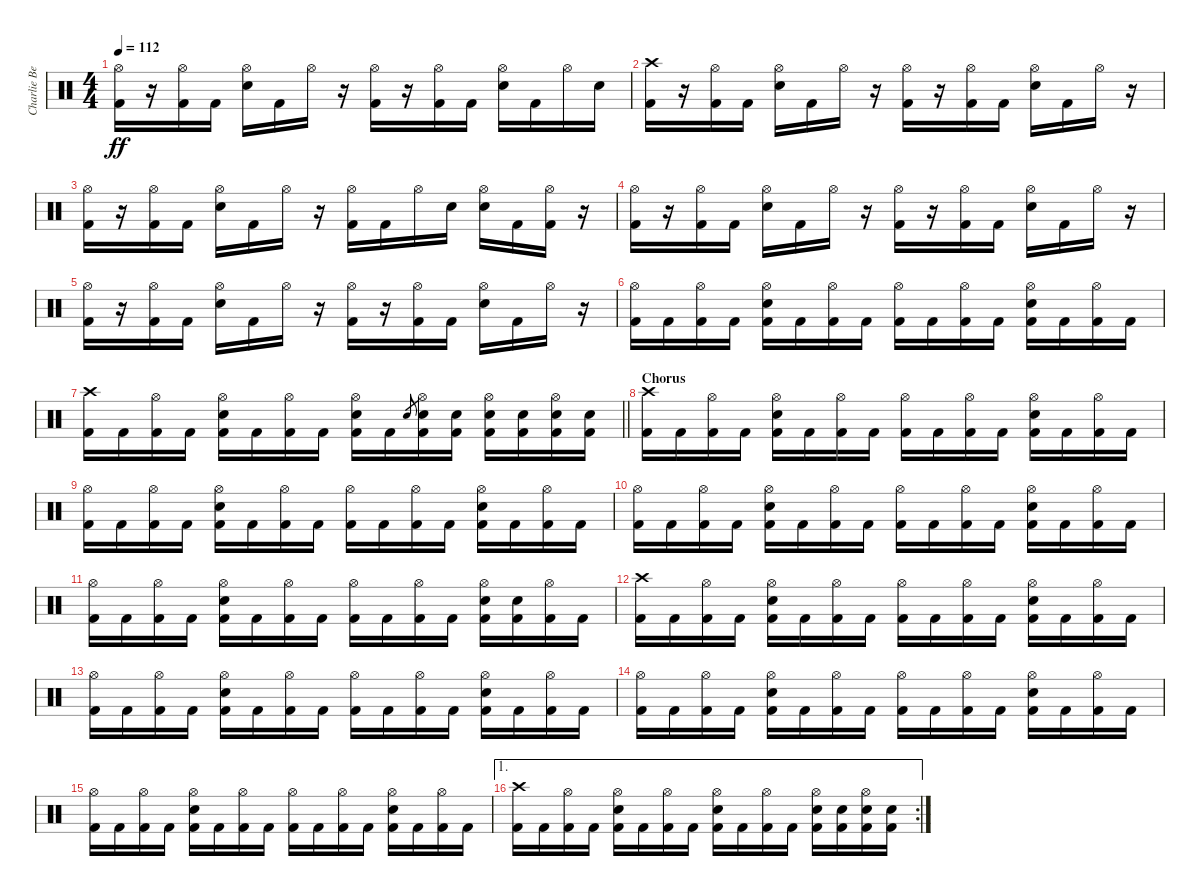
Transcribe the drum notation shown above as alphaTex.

\track ("Charlie Benante" "Charlie Be") {instrument percussion}
\staff {score}
\articulation defaults
\ts (4 4)
\tempo 112
\clef neutral
\ks c
("Hi-Hat (open)" "Kick (hit) 2").16{dy ff} r.16 ("Hi-Hat (open)" "Kick (hit) 2").16 "Kick (hit) 2".16 ("Hi-Hat (open)" "Snare (hit) 2").16 "Kick (hit) 2".16 "Hi-Hat (open)".16 r.16 ("Hi-Hat (open)" "Kick (hit) 2").16 r.16 ("Hi-Hat (open)" "Kick (hit) 2").16 "Kick (hit) 2".16 ("Hi-Hat (open)" "Snare (hit) 2").16 "Kick (hit) 2".16 "Hi-Hat (open)".16 "Snare (hit) 2".16 |
("Crash high (hit)" "Kick (hit) 2").16 r.16 ("Hi-Hat (open)" "Kick (hit) 2").16 "Kick (hit) 2".16 ("Hi-Hat (open)" "Snare (hit) 2").16 "Kick (hit) 2".16 "Hi-Hat (open)".16 r.16 ("Hi-Hat (open)" "Kick (hit) 2").16 r.16 ("Hi-Hat (open)" "Kick (hit) 2").16 "Kick (hit) 2".16 ("Hi-Hat (open)" "Snare (hit) 2").16 "Kick (hit) 2".16 "Hi-Hat (open)".16 r.16 |
("Hi-Hat (open)" "Kick (hit) 2").16 r.16 ("Hi-Hat (open)" "Kick (hit) 2").16 "Kick (hit) 2".16 ("Hi-Hat (open)" "Snare (hit) 2").16 "Kick (hit) 2".16 "Hi-Hat (open)".16 r.16 ("Hi-Hat (open)" "Kick (hit) 2").16 "Kick (hit) 2".16 "Hi-Hat (open)".16 "Snare (hit) 2".16 ("Hi-Hat (open)" "Snare (hit) 2").16 "Kick (hit) 2".16 ("Hi-Hat (open)" "Kick (hit) 2").16 r.16 |
("Hi-Hat (open)" "Kick (hit) 2").16 r.16 ("Hi-Hat (open)" "Kick (hit) 2").16 "Kick (hit) 2".16 ("Hi-Hat (open)" "Snare (hit) 2").16 "Kick (hit) 2".16 "Hi-Hat (open)".16 r.16 ("Hi-Hat (open)" "Kick (hit) 2").16 r.16 ("Hi-Hat (open)" "Kick (hit) 2").16 "Kick (hit) 2".16 ("Hi-Hat (open)" "Snare (hit) 2").16 "Kick (hit) 2".16 "Hi-Hat (open)".16 r.16 |
("Hi-Hat (open)" "Kick (hit) 2").16 r.16 ("Hi-Hat (open)" "Kick (hit) 2").16 "Kick (hit) 2".16 ("Hi-Hat (open)" "Snare (hit) 2").16 "Kick (hit) 2".16 "Hi-Hat (open)".16 r.16 ("Hi-Hat (open)" "Kick (hit) 2").16 r.16 ("Hi-Hat (open)" "Kick (hit) 2").16 "Kick (hit) 2".16 ("Hi-Hat (open)" "Snare (hit) 2").16 "Kick (hit) 2".16 "Hi-Hat (open)".16 r.16 |
("Hi-Hat (open)" "Kick (hit) 2").16 "Kick (hit) 2".16 ("Hi-Hat (open)" "Kick (hit) 2").16 "Kick (hit) 2".16 ("Hi-Hat (open)" "Snare (hit) 2" "Kick (hit) 2").16 "Kick (hit) 2".16 ("Hi-Hat (open)" "Kick (hit) 2").16 "Kick (hit) 2".16 ("Hi-Hat (open)" "Kick (hit) 2").16 "Kick (hit) 2".16 ("Hi-Hat (open)" "Kick (hit) 2").16 "Kick (hit) 2".16 ("Hi-Hat (open)" "Snare (hit) 2" "Kick (hit) 2").16 "Kick (hit) 2".16 ("Hi-Hat (open)" "Kick (hit) 2").16 "Kick (hit) 2".16 |
\barLineRight lightlight
("Crash high (hit)" "Kick (hit) 2").16 "Kick (hit) 2".16 ("Hi-Hat (open)" "Kick (hit) 2").16 "Kick (hit) 2".16 ("Hi-Hat (open)" "Snare (hit) 2" "Kick (hit) 2").16 "Kick (hit) 2".16 ("Hi-Hat (open)" "Kick (hit) 2").16 "Kick (hit) 2".16 ("Hi-Hat (open)" "Snare (hit) 2" "Kick (hit) 2").16 "Kick (hit) 2".16 "Snare (hit) 2".8{gr} ("Hi-Hat (open)" "Snare (hit) 2" "Kick (hit) 2").16 ("Snare (hit) 2" "Kick (hit) 2").16 ("Hi-Hat (open)" "Snare (hit) 2" "Kick (hit) 2").16 ("Snare (hit) 2" "Kick (hit) 2").16 ("Hi-Hat (open)" "Snare (hit) 2" "Kick (hit) 2").16 ("Snare (hit) 2" "Kick (hit) 2").16 |
\section ("" "Chorus")
("Crash high (hit)" "Kick (hit) 2").16 "Kick (hit) 2".16 ("Hi-Hat (open)" "Kick (hit) 2").16 "Kick (hit) 2".16 ("Hi-Hat (open)" "Snare (hit) 2" "Kick (hit) 2").16 "Kick (hit) 2".16 ("Hi-Hat (open)" "Kick (hit) 2").16 "Kick (hit) 2".16 ("Hi-Hat (open)" "Kick (hit) 2").16 "Kick (hit) 2".16 ("Hi-Hat (open)" "Kick (hit) 2").16 "Kick (hit) 2".16 ("Hi-Hat (open)" "Snare (hit) 2" "Kick (hit) 2").16 "Kick (hit) 2".16 ("Hi-Hat (open)" "Kick (hit) 2").16 "Kick (hit) 2".16 |
("Hi-Hat (open)" "Kick (hit) 2").16 "Kick (hit) 2".16 ("Hi-Hat (open)" "Kick (hit) 2").16 "Kick (hit) 2".16 ("Hi-Hat (open)" "Snare (hit) 2" "Kick (hit) 2").16 "Kick (hit) 2".16 ("Hi-Hat (open)" "Kick (hit) 2").16 "Kick (hit) 2".16 ("Hi-Hat (open)" "Kick (hit) 2").16 "Kick (hit) 2".16 ("Hi-Hat (open)" "Kick (hit) 2").16 "Kick (hit) 2".16 ("Hi-Hat (open)" "Snare (hit) 2" "Kick (hit) 2").16 "Kick (hit) 2".16 ("Hi-Hat (open)" "Kick (hit) 2").16 "Kick (hit) 2".16 |
("Hi-Hat (open)" "Kick (hit) 2").16 "Kick (hit) 2".16 ("Hi-Hat (open)" "Kick (hit) 2").16 "Kick (hit) 2".16 ("Hi-Hat (open)" "Snare (hit) 2" "Kick (hit) 2").16 "Kick (hit) 2".16 ("Hi-Hat (open)" "Kick (hit) 2").16 "Kick (hit) 2".16 ("Hi-Hat (open)" "Kick (hit) 2").16 "Kick (hit) 2".16 ("Hi-Hat (open)" "Kick (hit) 2").16 "Kick (hit) 2".16 ("Hi-Hat (open)" "Snare (hit) 2" "Kick (hit) 2").16 "Kick (hit) 2".16 ("Hi-Hat (open)" "Kick (hit) 2").16 "Kick (hit) 2".16 |
("Hi-Hat (open)" "Kick (hit) 2").16 "Kick (hit) 2".16 ("Hi-Hat (open)" "Kick (hit) 2").16 "Kick (hit) 2".16 ("Hi-Hat (open)" "Snare (hit) 2" "Kick (hit) 2").16 "Kick (hit) 2".16 ("Hi-Hat (open)" "Kick (hit) 2").16 "Kick (hit) 2".16 ("Hi-Hat (open)" "Kick (hit) 2").16 "Kick (hit) 2".16 ("Hi-Hat (open)" "Kick (hit) 2").16 "Kick (hit) 2".16 ("Hi-Hat (open)" "Snare (hit) 2" "Kick (hit) 2").16 ("Snare (hit) 2" "Kick (hit) 2").16 ("Hi-Hat (open)" "Kick (hit) 2").16 "Kick (hit) 2".16 |
("Crash high (hit)" "Kick (hit) 2").16 "Kick (hit) 2".16 ("Hi-Hat (open)" "Kick (hit) 2").16 "Kick (hit) 2".16 ("Hi-Hat (open)" "Snare (hit) 2" "Kick (hit) 2").16 "Kick (hit) 2".16 ("Hi-Hat (open)" "Kick (hit) 2").16 "Kick (hit) 2".16 ("Hi-Hat (open)" "Kick (hit) 2").16 "Kick (hit) 2".16 ("Hi-Hat (open)" "Kick (hit) 2").16 "Kick (hit) 2".16 ("Hi-Hat (open)" "Snare (hit) 2" "Kick (hit) 2").16 "Kick (hit) 2".16 ("Hi-Hat (open)" "Kick (hit) 2").16 "Kick (hit) 2".16 |
("Hi-Hat (open)" "Kick (hit) 2").16 "Kick (hit) 2".16 ("Hi-Hat (open)" "Kick (hit) 2").16 "Kick (hit) 2".16 ("Hi-Hat (open)" "Snare (hit) 2" "Kick (hit) 2").16 "Kick (hit) 2".16 ("Hi-Hat (open)" "Kick (hit) 2").16 "Kick (hit) 2".16 ("Hi-Hat (open)" "Kick (hit) 2").16 "Kick (hit) 2".16 ("Hi-Hat (open)" "Kick (hit) 2").16 "Kick (hit) 2".16 ("Hi-Hat (open)" "Snare (hit) 2" "Kick (hit) 2").16 "Kick (hit) 2".16 ("Hi-Hat (open)" "Kick (hit) 2").16 "Kick (hit) 2".16 |
("Hi-Hat (open)" "Kick (hit) 2").16 "Kick (hit) 2".16 ("Hi-Hat (open)" "Kick (hit) 2").16 "Kick (hit) 2".16 ("Hi-Hat (open)" "Snare (hit) 2" "Kick (hit) 2").16 "Kick (hit) 2".16 ("Hi-Hat (open)" "Kick (hit) 2").16 "Kick (hit) 2".16 ("Hi-Hat (open)" "Kick (hit) 2").16 "Kick (hit) 2".16 ("Hi-Hat (open)" "Kick (hit) 2").16 "Kick (hit) 2".16 ("Hi-Hat (open)" "Snare (hit) 2" "Kick (hit) 2").16 "Kick (hit) 2".16 ("Hi-Hat (open)" "Kick (hit) 2").16 "Kick (hit) 2".16 |
("Hi-Hat (open)" "Kick (hit) 2").16 "Kick (hit) 2".16 ("Hi-Hat (open)" "Kick (hit) 2").16 "Kick (hit) 2".16 ("Hi-Hat (open)" "Snare (hit) 2" "Kick (hit) 2").16 "Kick (hit) 2".16 ("Hi-Hat (open)" "Kick (hit) 2").16 "Kick (hit) 2".16 ("Hi-Hat (open)" "Kick (hit) 2").16 "Kick (hit) 2".16 ("Hi-Hat (open)" "Kick (hit) 2").16 "Kick (hit) 2".16 ("Hi-Hat (open)" "Snare (hit) 2" "Kick (hit) 2").16 "Kick (hit) 2".16 ("Hi-Hat (open)" "Kick (hit) 2").16 "Kick (hit) 2".16 |
\ae 1
\rc 2
("Crash high (hit)" "Kick (hit) 2").16 "Kick (hit) 2".16 ("Hi-Hat (open)" "Kick (hit) 2").16 "Kick (hit) 2".16 ("Hi-Hat (open)" "Snare (hit) 2" "Kick (hit) 2").16 "Kick (hit) 2".16 ("Hi-Hat (open)" "Kick (hit) 2").16 "Kick (hit) 2".16 ("Hi-Hat (open)" "Snare (hit) 2" "Kick (hit) 2").16 "Kick (hit) 2".16 ("Hi-Hat (open)" "Kick (hit) 2").16 "Kick (hit) 2".16 ("Hi-Hat (open)" "Snare (hit) 2" "Kick (hit) 2").16 ("Snare (hit) 2" "Kick (hit) 2").16 ("Hi-Hat (open)" "Snare (hit) 2" "Kick (hit) 2").16 ("Snare (hit) 2" "Kick (hit) 2").16
